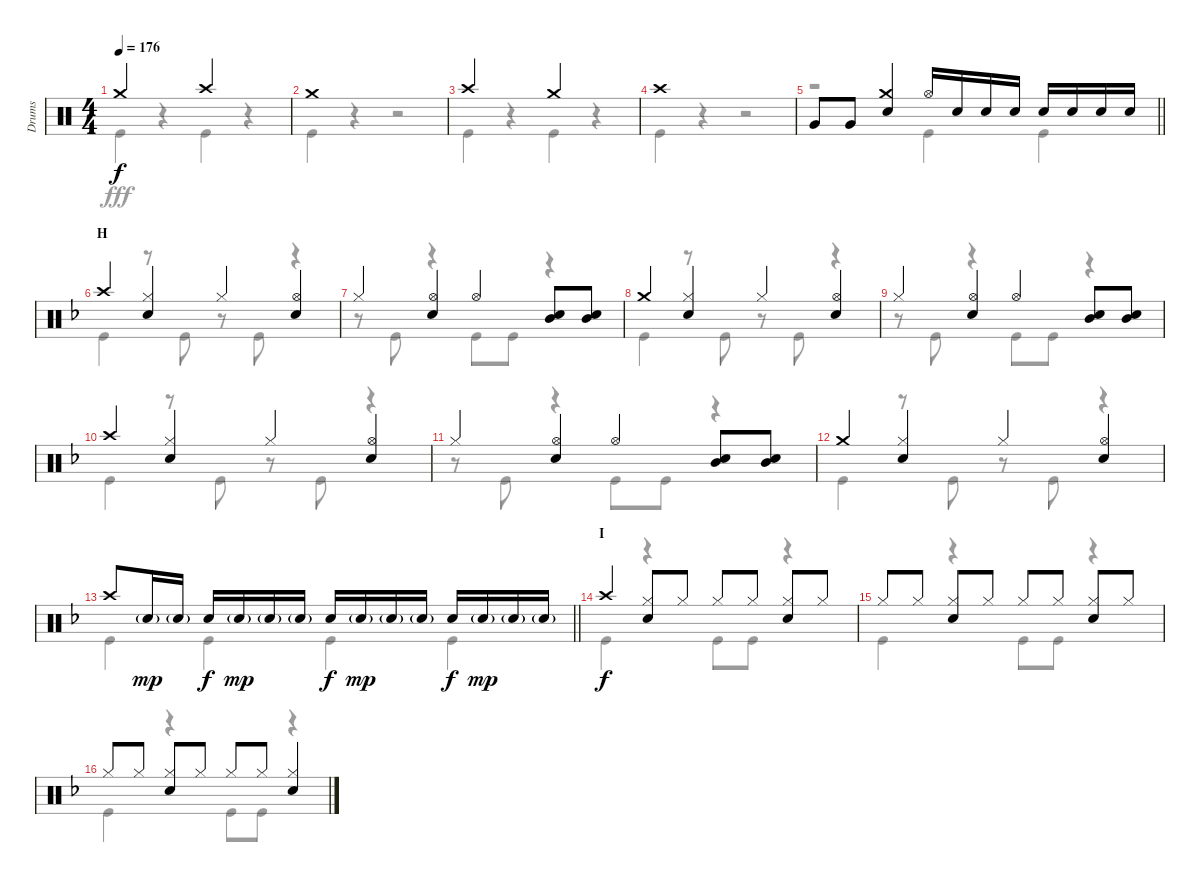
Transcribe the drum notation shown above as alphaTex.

\track ("Drums" "Drums") {instrument percussion}
\staff {score}
\articulation defaults
\voice
\ts (4 4)
\tempo 176
\clef neutral
\ks c "Crash medium (hit)".2{dy f} "Crash high (hit)".2
|
"Crash medium (hit)".1 |
"Crash high (hit)".2 "Crash medium (hit)".2 |
"Crash high (hit)".1 |
\barLineRight lightlight "Very Low Tom (hit)".8 "Very Low Tom (hit)".8
("Crash medium (hit)" "Snare (hit) 2").4 "Hi-Hat (open)".16 "Snare (hit) 2".16 "Snare (hit) 2".16 "Snare (hit) 2".16 "Snare (hit) 2".16 "Snare (hit) 2".16 "Snare (hit) 2".16 "Snare (hit) 2".16 |
\section ("" "H")
\ks f "Crash high (hit)".4
("Hi-Hat (closed)" "Snare (hit) 2").4 "Hi-Hat (closed)".4 ("Hi-Hat (open)" "Snare (hit) 2").4 |
"Hi-Hat (closed)".4 ("Hi-Hat (open)" "Snare (hit) 2").4 "Hi-Hat (open)".4 ("Mid Tom (hit)" "Snare (hit) 2").8 ("Mid Tom (hit)" "Snare (hit) 2").8 |
"Crash medium (hit)".4 ("Hi-Hat (closed)" "Snare (hit) 2").4 "Hi-Hat (closed)".4 ("Hi-Hat (open)" "Snare (hit) 2").4 |
"Hi-Hat (closed)".4 ("Hi-Hat (open)" "Snare (hit) 2").4 "Hi-Hat (open)".4 ("Mid Tom (hit)" "Snare (hit) 2").8 ("Mid Tom (hit)" "Snare (hit) 2").8 |
"Crash high (hit)".4 ("Hi-Hat (closed)" "Snare (hit) 2").4 "Hi-Hat (closed)".4 ("Hi-Hat (open)" "Snare (hit) 2").4 |
"Hi-Hat (closed)".4 ("Hi-Hat (open)" "Snare (hit) 2").4 "Hi-Hat (open)".4 ("Mid Tom (hit)" "Snare (hit) 2").8 ("Mid Tom (hit)" "Snare (hit) 2").8 |
"Crash medium (hit)".4 ("Hi-Hat (closed)" "Snare (hit) 2").4 "Hi-Hat (closed)".4 ("Hi-Hat (open)" "Snare (hit) 2").4 |
\barLineRight lightlight "Crash high (hit)".8 "Snare (hit) 2"{g}.16{dy mp} "Snare (hit) 2"{g}.16 "Snare (hit) 2".16{dy f} "Snare (hit) 2"{g}.16{dy mp} "Snare (hit) 2"{g}.16 "Snare (hit) 2"{g}.16 "Snare (hit) 2".16{dy f} "Snare (hit) 2"{g}.16{dy mp} "Snare (hit) 2"{g}.16 "Snare (hit) 2"{g}.16 "Snare (hit) 2".16{dy f} "Snare (hit) 2"{g}.16{dy mp} "Snare (hit) 2"{g}.16 "Snare (hit) 2"{g}.16
|
\section ("" "I")
"Crash high (hit)".4{dy f} ("Hi-Hat (closed)" "Snare (hit) 2").8 "Hi-Hat (closed)".8 "Hi-Hat (closed)".8 "Hi-Hat (closed)".8 ("Hi-Hat (closed)" "Snare (hit) 2").8 "Hi-Hat (closed)".8 |
"Hi-Hat (closed)".8 "Hi-Hat (closed)".8 ("Hi-Hat (closed)" "Snare (hit) 2").8 "Hi-Hat (closed)".8 "Hi-Hat (closed)".8 "Hi-Hat (closed)".8 ("Hi-Hat (closed)" "Snare (hit) 2").8 "Hi-Hat (closed)".8 |
"Hi-Hat (closed)".8 "Hi-Hat (closed)".8 ("Hi-Hat (closed)" "Snare (hit) 2").8 "Hi-Hat (closed)".8 "Hi-Hat (closed)".8 "Hi-Hat (closed)".8 ("Hi-Hat (closed)" "Snare (hit) 2").4
\voice
\clef neutral
\ottava regular
\simile none
\ks c "Kick (hit)".4{dy fff}
r.4 "Kick (hit)".4 r.4 |
"Kick (hit)".4 r.4 r.2 |
"Kick (hit)".4 r.4 "Kick (hit)".4 r.4 |
"Kick (hit)".4 r.4 r.2 |
\barLineRight lightlight
r.2 "Kick (hit)".4 "Kick (hit)".4 |
\ks f "Kick (hit)".4
r.8 "Kick (hit)".8 r.8 "Kick (hit)".8 r.4 |
r.8 "Kick (hit)".8 r.4 "Kick (hit)".8 "Kick (hit)".8 r.4 |
"Kick (hit)".4 r.8 "Kick (hit)".8 r.8 "Kick (hit)".8 r.4 |
r.8 "Kick (hit)".8 r.4 "Kick (hit)".8 "Kick (hit)".8 r.4 |
"Kick (hit)".4 r.8 "Kick (hit)".8 r.8 "Kick (hit)".8 r.4 |
r.8 "Kick (hit)".8 r.4 "Kick (hit)".8 "Kick (hit)".8 r.4 |
"Kick (hit)".4 r.8 "Kick (hit)".8 r.8 "Kick (hit)".8 r.4 |
\barLineRight lightlight "Kick (hit)".4 "Kick (hit)".4 "Kick (hit)".4 "Kick (hit)".4
|
"Kick (hit)".4 r.4 "Kick (hit)".8 "Kick (hit)".8 r.4 |
"Kick (hit)".4 r.4 "Kick (hit)".8 "Kick (hit)".8 r.4 |
"Kick (hit)".4 r.4 "Kick (hit)".8 "Kick (hit)".8 r.4
